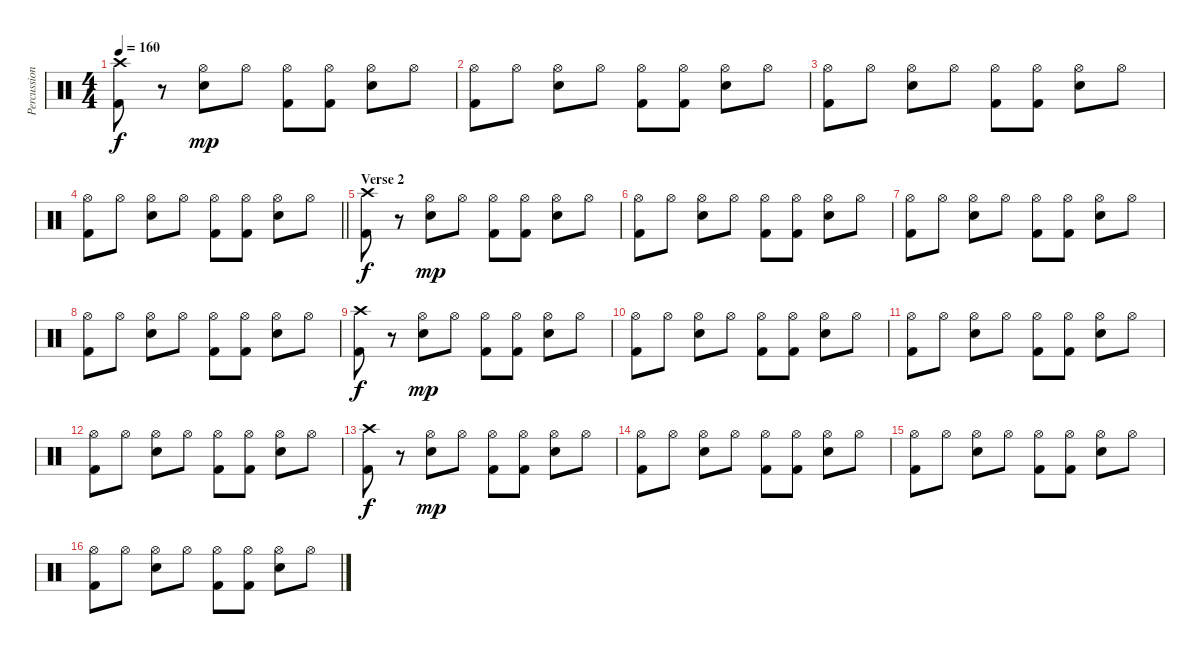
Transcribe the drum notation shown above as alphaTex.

\track ("Percussion - album" "Percussion") {mute instrument percussion}
\staff {score}
\articulation defaults
\ts (4 4)
\tempo 160
\clef neutral
\ks c
("Crash high (hit)" "Kick (hit) 2").8{dy f} r.8 ("Hi-Hat (open)" "Snare (hit) 2").8{dy mp} "Hi-Hat (open)".8 ("Hi-Hat (open)" "Kick (hit) 2").8 ("Hi-Hat (open)" "Kick (hit) 2").8 ("Hi-Hat (open)" "Snare (hit) 2").8 "Hi-Hat (open)".8 |
("Hi-Hat (open)" "Kick (hit) 2").8 "Hi-Hat (open)".8 ("Hi-Hat (open)" "Snare (hit) 2").8 "Hi-Hat (open)".8 ("Hi-Hat (open)" "Kick (hit) 2").8 ("Hi-Hat (open)" "Kick (hit) 2").8 ("Hi-Hat (open)" "Snare (hit) 2").8 "Hi-Hat (open)".8 |
("Hi-Hat (open)" "Kick (hit) 2").8 "Hi-Hat (open)".8 ("Hi-Hat (open)" "Snare (hit) 2").8 "Hi-Hat (open)".8 ("Hi-Hat (open)" "Kick (hit) 2").8 ("Hi-Hat (open)" "Kick (hit) 2").8 ("Hi-Hat (open)" "Snare (hit) 2").8 "Hi-Hat (open)".8 |
\barLineRight lightlight
("Hi-Hat (open)" "Kick (hit) 2").8 "Hi-Hat (open)".8 ("Hi-Hat (open)" "Snare (hit) 2").8 "Hi-Hat (open)".8 ("Hi-Hat (open)" "Kick (hit) 2").8 ("Hi-Hat (open)" "Kick (hit) 2").8 ("Hi-Hat (open)" "Snare (hit) 2").8 "Hi-Hat (open)".8 |
\section ("" "Verse 2")
("Crash high (hit)" "Kick (hit) 2").8{dy f} r.8 ("Hi-Hat (open)" "Snare (hit) 2").8{dy mp} "Hi-Hat (open)".8 ("Hi-Hat (open)" "Kick (hit) 2").8 ("Hi-Hat (open)" "Kick (hit) 2").8 ("Hi-Hat (open)" "Snare (hit) 2").8 "Hi-Hat (open)".8 |
("Hi-Hat (open)" "Kick (hit) 2").8 "Hi-Hat (open)".8 ("Hi-Hat (open)" "Snare (hit) 2").8 "Hi-Hat (open)".8 ("Hi-Hat (open)" "Kick (hit) 2").8 ("Hi-Hat (open)" "Kick (hit) 2").8 ("Hi-Hat (open)" "Snare (hit) 2").8 "Hi-Hat (open)".8 |
("Hi-Hat (open)" "Kick (hit) 2").8 "Hi-Hat (open)".8 ("Hi-Hat (open)" "Snare (hit) 2").8 "Hi-Hat (open)".8 ("Hi-Hat (open)" "Kick (hit) 2").8 ("Hi-Hat (open)" "Kick (hit) 2").8 ("Hi-Hat (open)" "Snare (hit) 2").8 "Hi-Hat (open)".8 |
("Hi-Hat (open)" "Kick (hit) 2").8 "Hi-Hat (open)".8 ("Hi-Hat (open)" "Snare (hit) 2").8 "Hi-Hat (open)".8 ("Hi-Hat (open)" "Kick (hit) 2").8 ("Hi-Hat (open)" "Kick (hit) 2").8 ("Hi-Hat (open)" "Snare (hit) 2").8 "Hi-Hat (open)".8 |
("Crash high (hit)" "Kick (hit) 2").8{dy f} r.8 ("Hi-Hat (open)" "Snare (hit) 2").8{dy mp} "Hi-Hat (open)".8 ("Hi-Hat (open)" "Kick (hit) 2").8 ("Hi-Hat (open)" "Kick (hit) 2").8 ("Hi-Hat (open)" "Snare (hit) 2").8 "Hi-Hat (open)".8 |
("Hi-Hat (open)" "Kick (hit) 2").8 "Hi-Hat (open)".8 ("Hi-Hat (open)" "Snare (hit) 2").8 "Hi-Hat (open)".8 ("Hi-Hat (open)" "Kick (hit) 2").8 ("Hi-Hat (open)" "Kick (hit) 2").8 ("Hi-Hat (open)" "Snare (hit) 2").8 "Hi-Hat (open)".8 |
("Hi-Hat (open)" "Kick (hit) 2").8 "Hi-Hat (open)".8 ("Hi-Hat (open)" "Snare (hit) 2").8 "Hi-Hat (open)".8 ("Hi-Hat (open)" "Kick (hit) 2").8 ("Hi-Hat (open)" "Kick (hit) 2").8 ("Hi-Hat (open)" "Snare (hit) 2").8 "Hi-Hat (open)".8 |
("Hi-Hat (open)" "Kick (hit) 2").8 "Hi-Hat (open)".8 ("Hi-Hat (open)" "Snare (hit) 2").8 "Hi-Hat (open)".8 ("Hi-Hat (open)" "Kick (hit) 2").8 ("Hi-Hat (open)" "Kick (hit) 2").8 ("Hi-Hat (open)" "Snare (hit) 2").8 "Hi-Hat (open)".8 |
("Crash high (hit)" "Kick (hit) 2").8{dy f} r.8 ("Hi-Hat (open)" "Snare (hit) 2").8{dy mp} "Hi-Hat (open)".8 ("Hi-Hat (open)" "Kick (hit) 2").8 ("Hi-Hat (open)" "Kick (hit) 2").8 ("Hi-Hat (open)" "Snare (hit) 2").8 "Hi-Hat (open)".8 |
("Hi-Hat (open)" "Kick (hit) 2").8 "Hi-Hat (open)".8 ("Hi-Hat (open)" "Snare (hit) 2").8 "Hi-Hat (open)".8 ("Hi-Hat (open)" "Kick (hit) 2").8 ("Hi-Hat (open)" "Kick (hit) 2").8 ("Hi-Hat (open)" "Snare (hit) 2").8 "Hi-Hat (open)".8 |
("Hi-Hat (open)" "Kick (hit) 2").8 "Hi-Hat (open)".8 ("Hi-Hat (open)" "Snare (hit) 2").8 "Hi-Hat (open)".8 ("Hi-Hat (open)" "Kick (hit) 2").8 ("Hi-Hat (open)" "Kick (hit) 2").8 ("Hi-Hat (open)" "Snare (hit) 2").8 "Hi-Hat (open)".8 |
("Hi-Hat (open)" "Kick (hit) 2").8 "Hi-Hat (open)".8 ("Hi-Hat (open)" "Snare (hit) 2").8 "Hi-Hat (open)".8 ("Hi-Hat (open)" "Kick (hit) 2").8 ("Hi-Hat (open)" "Kick (hit) 2").8 ("Hi-Hat (open)" "Snare (hit) 2").8 "Hi-Hat (open)".8
